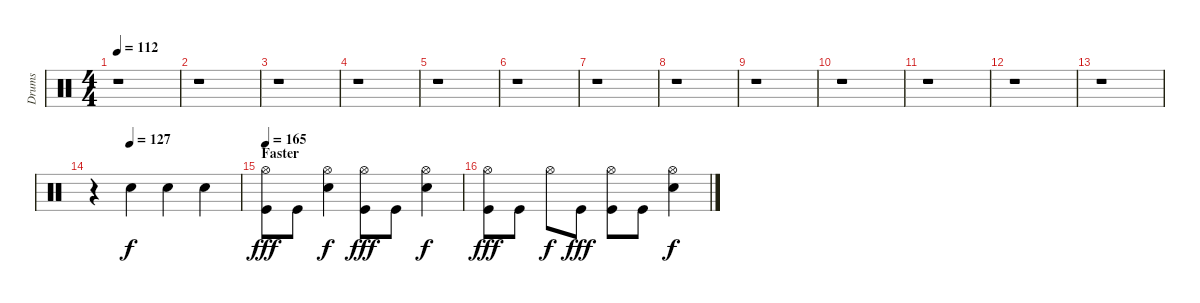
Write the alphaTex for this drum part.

\track ("Drums" "Drums") {instrument percussion}
\staff {score}
\articulation defaults
\ts (4 4)
\tempo 112
\clef neutral
\ks c
r.1{dy f} |
r.1 |
r.1 |
r.1 |
r.1 |
r.1 |
r.1 |
r.1 |
r.1 |
r.1 |
r.1 |
r.1 |
r.1 |
\tempo (127 0.25)
r.4 "Snare (hit) 2".4 "Snare (hit) 2".4 "Snare (hit) 2".4 |
\section ("" "Faster")
\tempo 165
("Hi-Hat (open)" "Kick (hit)").8{dy fff} "Kick (hit)".8 ("Hi-Hat (open)" "Snare (hit) 2").4{dy f} ("Hi-Hat (open)" "Kick (hit)").8{dy fff} "Kick (hit)".8 ("Hi-Hat (open)" "Snare (hit) 2").4{dy f} |
("Hi-Hat (open)" "Kick (hit)").8{dy fff} "Kick (hit)".8 "Hi-Hat (open)".8{dy f} "Kick (hit)".8{dy fff} ("Hi-Hat (open)" "Kick (hit)").8 "Kick (hit)".8 ("Hi-Hat (open)" "Snare (hit) 2").4{dy f}
